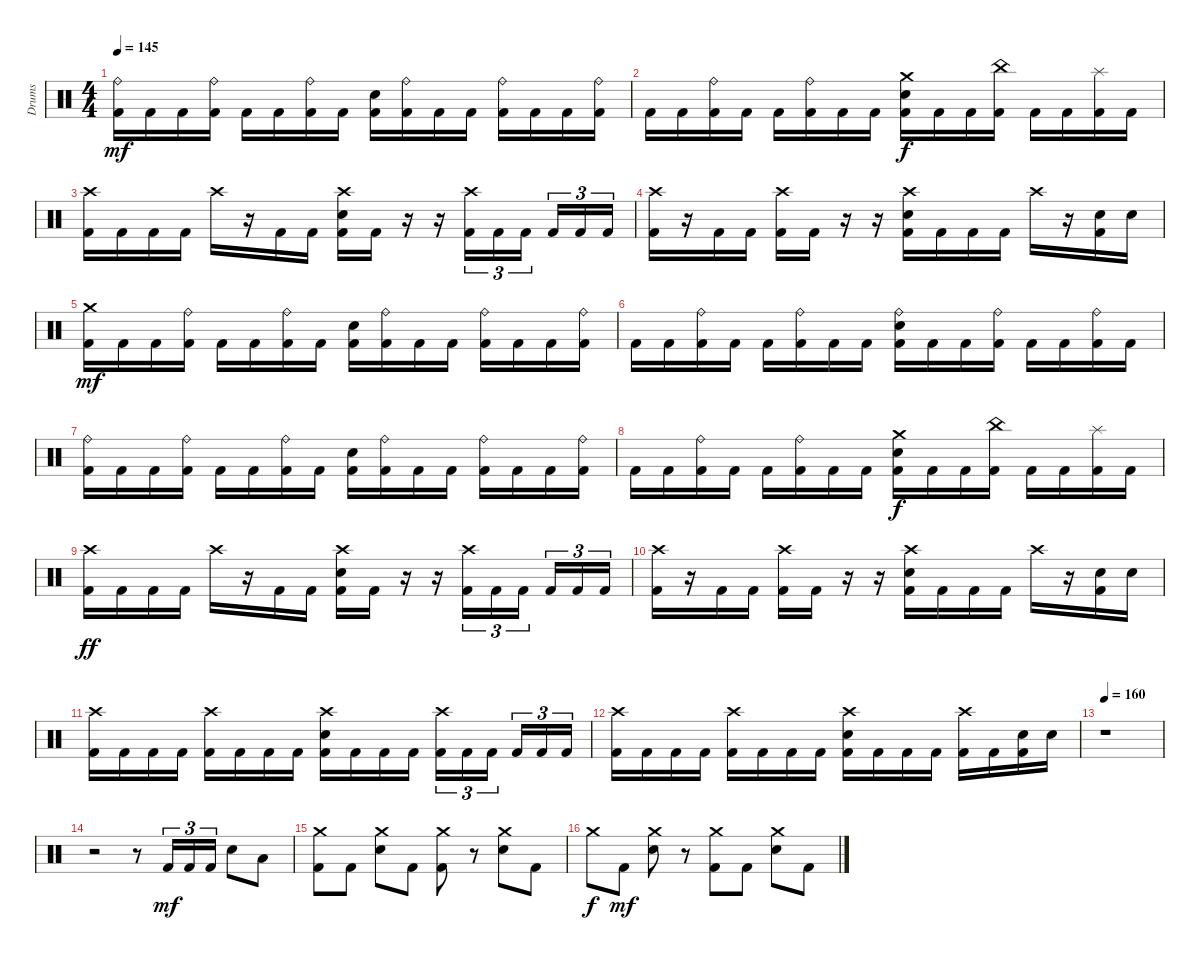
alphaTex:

\track ("Drums" "Drums") {instrument percussion}
\staff {score}
\articulation defaults
\ts (4 4)
\tempo 145
\clef neutral
\ks c
("Ride (bell)" "Kick (hit) 2").16{dy mf} "Kick (hit) 2".16 "Kick (hit) 2".16 ("Ride (bell)" "Kick (hit) 2").16 "Kick (hit) 2".16 "Kick (hit) 2".16 ("Ride (bell)" "Kick (hit) 2").16 "Kick (hit) 2".16 ("Electric Snare (hit)" "Kick (hit) 2").16 ("Ride (bell)" "Kick (hit) 2").16 "Kick (hit) 2".16 "Kick (hit) 2".16 ("Ride (bell)" "Kick (hit) 2").16 "Kick (hit) 2".16 "Kick (hit) 2".16 ("Ride (bell)" "Kick (hit) 2").16 |
"Kick (hit) 2".16 "Kick (hit) 2".16 ("Ride (bell)" "Kick (hit) 2").16 "Kick (hit) 2".16 "Kick (hit) 2".16 ("Ride (bell)" "Kick (hit) 2").16 "Kick (hit) 2".16 "Kick (hit) 2".16 ("Crash medium (hit)" "Electric Snare (hit)" "Kick (hit) 2").16{dy f} "Kick (hit) 2".16 "Kick (hit) 2".16 ("China (hit)" "Kick (hit) 2").16 "Kick (hit) 2".16 "Kick (hit) 2".16 ("Splash (hit)" "Kick (hit) 2").16 "Kick (hit) 2".16 |
("Crash high (hit)" "Kick (hit) 2").16 "Kick (hit) 2".16 "Kick (hit) 2".16 "Kick (hit) 2".16 "Crash high (hit)".16 r.16 "Kick (hit) 2".16 "Kick (hit) 2".16 ("Crash high (hit)" "Electric Snare (hit)" "Kick (hit) 2").16 "Kick (hit) 2".16 r.16 r.16 ("Crash high (hit)" "Kick (hit) 2").16{tu (3 2)} "Kick (hit) 2".16{tu (3 2)} "Kick (hit) 2".16{tu (3 2) beam splitsecondary} "Kick (hit) 2".16{tu (3 2)} "Kick (hit) 2".16{tu (3 2)} "Kick (hit) 2".16{tu (3 2)} |
("Crash high (hit)" "Kick (hit) 2").16 r.16 "Kick (hit) 2".16 "Kick (hit) 2".16 ("Crash high (hit)" "Kick (hit) 2").16 "Kick (hit) 2".16 r.16 r.16 ("Crash high (hit)" "Electric Snare (hit)" "Kick (hit) 2").16 "Kick (hit) 2".16 "Kick (hit) 2".16 "Kick (hit) 2".16 "Crash high (hit)".16 r.16 ("Electric Snare (hit)" "Kick (hit) 2").16 "Electric Snare (hit)".16 |
("Crash medium (hit)" "Kick (hit) 2").16{dy mf} "Kick (hit) 2".16 "Kick (hit) 2".16 ("Ride (bell)" "Kick (hit) 2").16 "Kick (hit) 2".16 "Kick (hit) 2".16 ("Ride (bell)" "Kick (hit) 2").16 "Kick (hit) 2".16 ("Electric Snare (hit)" "Kick (hit) 2").16 ("Ride (bell)" "Kick (hit) 2").16 "Kick (hit) 2".16 "Kick (hit) 2".16 ("Ride (bell)" "Kick (hit) 2").16 "Kick (hit) 2".16 "Kick (hit) 2".16 ("Ride (bell)" "Kick (hit) 2").16 |
"Kick (hit) 2".16 "Kick (hit) 2".16 ("Ride (bell)" "Kick (hit) 2").16 "Kick (hit) 2".16 "Kick (hit) 2".16 ("Ride (bell)" "Kick (hit) 2").16 "Kick (hit) 2".16 "Kick (hit) 2".16 ("Ride (bell)" "Electric Snare (hit)" "Kick (hit) 2").16 "Kick (hit) 2".16 "Kick (hit) 2".16 ("Ride (bell)" "Kick (hit) 2").16 "Kick (hit) 2".16 "Kick (hit) 2".16 ("Ride (bell)" "Kick (hit) 2").16 "Kick (hit) 2".16 |
("Ride (bell)" "Kick (hit) 2").16 "Kick (hit) 2".16 "Kick (hit) 2".16 ("Ride (bell)" "Kick (hit) 2").16 "Kick (hit) 2".16 "Kick (hit) 2".16 ("Ride (bell)" "Kick (hit) 2").16 "Kick (hit) 2".16 ("Electric Snare (hit)" "Kick (hit) 2").16 ("Ride (bell)" "Kick (hit) 2").16 "Kick (hit) 2".16 "Kick (hit) 2".16 ("Ride (bell)" "Kick (hit) 2").16 "Kick (hit) 2".16 "Kick (hit) 2".16 ("Ride (bell)" "Kick (hit) 2").16 |
"Kick (hit) 2".16 "Kick (hit) 2".16 ("Ride (bell)" "Kick (hit) 2").16 "Kick (hit) 2".16 "Kick (hit) 2".16 ("Ride (bell)" "Kick (hit) 2").16 "Kick (hit) 2".16 "Kick (hit) 2".16 ("Crash medium (hit)" "Electric Snare (hit)" "Kick (hit) 2").16{dy f} "Kick (hit) 2".16 "Kick (hit) 2".16 ("China (hit)" "Kick (hit) 2").16 "Kick (hit) 2".16 "Kick (hit) 2".16 ("Splash (hit)" "Kick (hit) 2").16 "Kick (hit) 2".16 |
("Crash high (hit)" "Kick (hit) 2").16{dy ff} "Kick (hit) 2".16 "Kick (hit) 2".16 "Kick (hit) 2".16 "Crash high (hit)".16 r.16 "Kick (hit) 2".16 "Kick (hit) 2".16 ("Crash high (hit)" "Electric Snare (hit)" "Kick (hit) 2").16 "Kick (hit) 2".16 r.16 r.16 ("Crash high (hit)" "Kick (hit) 2").16{tu (3 2)} "Kick (hit) 2".16{tu (3 2)} "Kick (hit) 2".16{tu (3 2) beam splitsecondary} "Kick (hit) 2".16{tu (3 2)} "Kick (hit) 2".16{tu (3 2)} "Kick (hit) 2".16{tu (3 2)} |
("Crash high (hit)" "Kick (hit) 2").16 r.16 "Kick (hit) 2".16 "Kick (hit) 2".16 ("Crash high (hit)" "Kick (hit) 2").16 "Kick (hit) 2".16 r.16 r.16 ("Crash high (hit)" "Electric Snare (hit)" "Kick (hit) 2").16 "Kick (hit) 2".16 "Kick (hit) 2".16 "Kick (hit) 2".16 "Crash high (hit)".16 r.16 ("Electric Snare (hit)" "Kick (hit) 2").16 "Electric Snare (hit)".16 |
("Crash high (hit)" "Kick (hit) 2").16 "Kick (hit) 2".16 "Kick (hit) 2".16 "Kick (hit) 2".16 ("Crash high (hit)" "Kick (hit) 2").16 "Kick (hit) 2".16 "Kick (hit) 2".16 "Kick (hit) 2".16 ("Crash high (hit)" "Electric Snare (hit)" "Kick (hit) 2").16 "Kick (hit) 2".16 "Kick (hit) 2".16 "Kick (hit) 2".16 ("Crash high (hit)" "Kick (hit) 2").16{tu (3 2)} "Kick (hit) 2".16{tu (3 2)} "Kick (hit) 2".16{tu (3 2) beam splitsecondary} "Kick (hit) 2".16{tu (3 2)} "Kick (hit) 2".16{tu (3 2)} "Kick (hit) 2".16{tu (3 2)} |
("Crash high (hit)" "Kick (hit) 2").16 "Kick (hit) 2".16 "Kick (hit) 2".16 "Kick (hit) 2".16 ("Crash high (hit)" "Kick (hit) 2").16 "Kick (hit) 2".16 "Kick (hit) 2".16 "Kick (hit) 2".16 ("Crash high (hit)" "Electric Snare (hit)" "Kick (hit) 2").16 "Kick (hit) 2".16 "Kick (hit) 2".16 "Kick (hit) 2".16 ("Crash high (hit)" "Kick (hit) 2").16 "Kick (hit) 2".16 ("Electric Snare (hit)" "Kick (hit) 2").16 "Electric Snare (hit)".16 |
\tempo 160
r.1 |
r.2 r.8 "Kick (hit) 2".16{tu (3 2) dy mf} "Kick (hit) 2".16{tu (3 2)} "Kick (hit) 2".16{tu (3 2)} "Electric Snare (hit)".8 "Low Floor Tom (hit)".8 |
("Crash medium (hit)" "Kick (hit) 2").8 "Kick (hit) 2".8 ("Crash medium (hit)" "Electric Snare (hit)").8 "Kick (hit) 2".8 ("Crash medium (hit)" "Kick (hit) 2").8 r.8 ("Crash medium (hit)" "Electric Snare (hit)").8 "Kick (hit) 2".8 |
"Crash medium (hit)".8{dy f} "Kick (hit) 2".8{dy mf} ("Crash medium (hit)" "Electric Snare (hit)").8 r.8 ("Crash medium (hit)" "Kick (hit) 2").8 "Kick (hit) 2".8 ("Crash medium (hit)" "Electric Snare (hit)").8 "Kick (hit) 2".8
